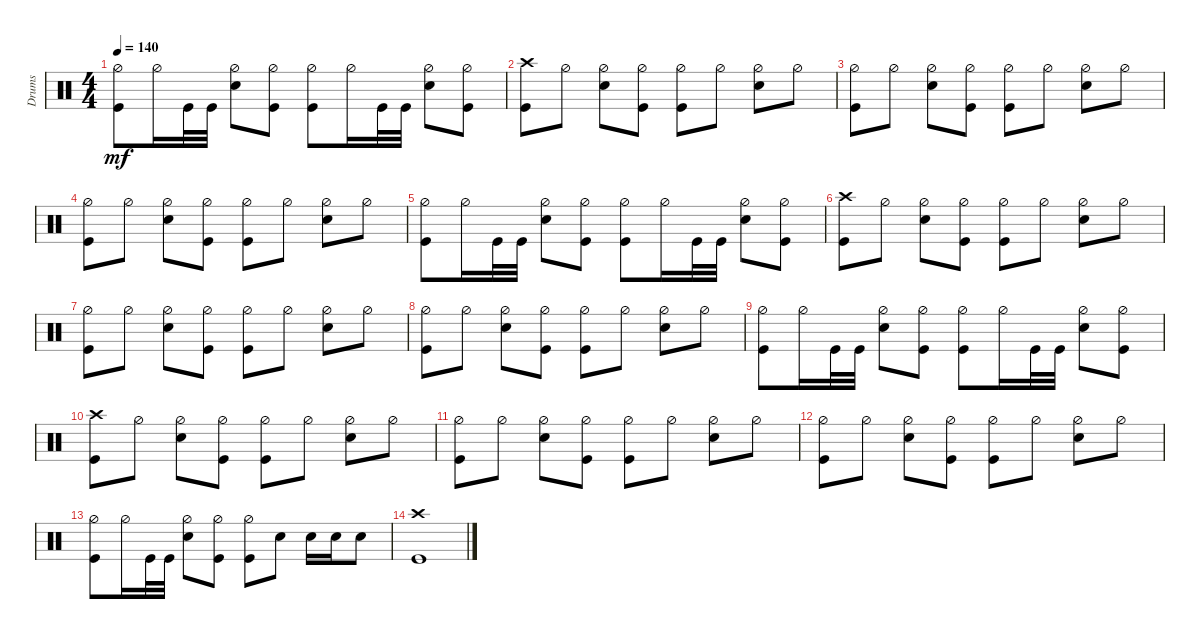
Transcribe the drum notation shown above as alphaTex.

\track ("Drumkit" "Drums") {instrument percussion}
\staff {score}
\articulation defaults
\ts (4 4)
\tempo 140
\clef neutral
\ks c
("Kick (hit)" "Hi-Hat (half)").8{dy mf} "Hi-Hat (half)".16 "Kick (hit)".32 "Kick (hit)".32 ("Hi-Hat (half)" "Snare (hit) 2").8 ("Kick (hit)" "Hi-Hat (half)").8 ("Kick (hit)" "Hi-Hat (half)").8 "Hi-Hat (half)".16 "Kick (hit)".32 "Kick (hit)".32 ("Hi-Hat (half)" "Snare (hit) 2").8 ("Hi-Hat (half)" "Kick (hit)").8 |
("Kick (hit)" "Crash high (hit)").8 "Hi-Hat (half)".8 ("Snare (hit) 2" "Hi-Hat (half)").8 ("Kick (hit)" "Hi-Hat (half)").8 ("Kick (hit)" "Hi-Hat (half)").8 "Hi-Hat (half)".8 ("Snare (hit) 2" "Hi-Hat (half)").8 "Hi-Hat (half)".8 |
("Kick (hit)" "Hi-Hat (half)").8 "Hi-Hat (half)".8 ("Snare (hit) 2" "Hi-Hat (half)").8 ("Kick (hit)" "Hi-Hat (half)").8 ("Kick (hit)" "Hi-Hat (half)").8 "Hi-Hat (half)".8 ("Snare (hit) 2" "Hi-Hat (half)").8 "Hi-Hat (half)".8 |
("Kick (hit)" "Hi-Hat (half)").8 "Hi-Hat (half)".8 ("Snare (hit) 2" "Hi-Hat (half)").8 ("Kick (hit)" "Hi-Hat (half)").8 ("Kick (hit)" "Hi-Hat (half)").8 "Hi-Hat (half)".8 ("Snare (hit) 2" "Hi-Hat (half)").8 "Hi-Hat (half)".8 |
("Kick (hit)" "Hi-Hat (half)").8 "Hi-Hat (half)".16 "Kick (hit)".32 "Kick (hit)".32 ("Hi-Hat (half)" "Snare (hit) 2").8 ("Kick (hit)" "Hi-Hat (half)").8 ("Kick (hit)" "Hi-Hat (half)").8 "Hi-Hat (half)".16 "Kick (hit)".32 "Kick (hit)".32 ("Hi-Hat (half)" "Snare (hit) 2").8 ("Hi-Hat (half)" "Kick (hit)").8 |
("Kick (hit)" "Crash high (hit)").8 "Hi-Hat (half)".8 ("Snare (hit) 2" "Hi-Hat (half)").8 ("Kick (hit)" "Hi-Hat (half)").8 ("Kick (hit)" "Hi-Hat (half)").8 "Hi-Hat (half)".8 ("Snare (hit) 2" "Hi-Hat (half)").8 "Hi-Hat (half)".8 |
("Kick (hit)" "Hi-Hat (half)").8 "Hi-Hat (half)".8 ("Snare (hit) 2" "Hi-Hat (half)").8 ("Kick (hit)" "Hi-Hat (half)").8 ("Kick (hit)" "Hi-Hat (half)").8 "Hi-Hat (half)".8 ("Snare (hit) 2" "Hi-Hat (half)").8 "Hi-Hat (half)".8 |
("Kick (hit)" "Hi-Hat (half)").8 "Hi-Hat (half)".8 ("Snare (hit) 2" "Hi-Hat (half)").8 ("Kick (hit)" "Hi-Hat (half)").8 ("Kick (hit)" "Hi-Hat (half)").8 "Hi-Hat (half)".8 ("Snare (hit) 2" "Hi-Hat (half)").8 "Hi-Hat (half)".8 |
("Kick (hit)" "Hi-Hat (half)").8 "Hi-Hat (half)".16 "Kick (hit)".32 "Kick (hit)".32 ("Hi-Hat (half)" "Snare (hit) 2").8 ("Kick (hit)" "Hi-Hat (half)").8 ("Kick (hit)" "Hi-Hat (half)").8 "Hi-Hat (half)".16 "Kick (hit)".32 "Kick (hit)".32 ("Hi-Hat (half)" "Snare (hit) 2").8 ("Hi-Hat (half)" "Kick (hit)").8 |
("Kick (hit)" "Crash high (hit)").8 "Hi-Hat (half)".8 ("Snare (hit) 2" "Hi-Hat (half)").8 ("Kick (hit)" "Hi-Hat (half)").8 ("Kick (hit)" "Hi-Hat (half)").8 "Hi-Hat (half)".8 ("Snare (hit) 2" "Hi-Hat (half)").8 "Hi-Hat (half)".8 |
("Kick (hit)" "Hi-Hat (half)").8 "Hi-Hat (half)".8 ("Snare (hit) 2" "Hi-Hat (half)").8 ("Kick (hit)" "Hi-Hat (half)").8 ("Kick (hit)" "Hi-Hat (half)").8 "Hi-Hat (half)".8 ("Snare (hit) 2" "Hi-Hat (half)").8 "Hi-Hat (half)".8 |
("Kick (hit)" "Hi-Hat (half)").8 "Hi-Hat (half)".8 ("Snare (hit) 2" "Hi-Hat (half)").8 ("Kick (hit)" "Hi-Hat (half)").8 ("Kick (hit)" "Hi-Hat (half)").8 "Hi-Hat (half)".8 ("Snare (hit) 2" "Hi-Hat (half)").8 "Hi-Hat (half)".8 |
("Kick (hit)" "Hi-Hat (half)").8 "Hi-Hat (half)".16 "Kick (hit)".32 "Kick (hit)".32 ("Hi-Hat (half)" "Snare (hit) 2").8 ("Kick (hit)" "Hi-Hat (half)").8 ("Kick (hit)" "Hi-Hat (half)").8 "Snare (hit) 2".8 "Snare (hit) 2".16 "Snare (hit) 2".16 "Snare (hit) 2".8 |
("Kick (hit)" "Crash high (hit)").1
